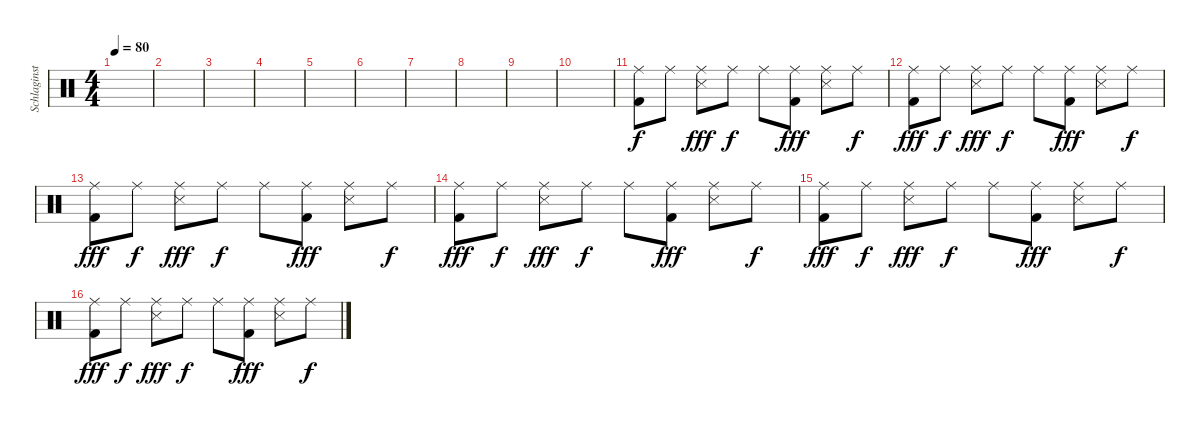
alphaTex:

\track ("Schlaginstrumente - Auswahl" "Schlaginst") {instrument percussion}
\staff {score}
\articulation defaults
\ts (4 4)
\tempo 80
\clef neutral
\ks c
|
|
|
|
|
|
|
|
|
|
("Ride (middle)" "Kick (hit) 2").8 "Ride (middle)".8{dy f} ("Ride (middle)" "Snare (side stick) 3").8{dy fff} "Ride (middle)".8{dy f} "Ride (middle)".8 ("Ride (middle)" "Kick (hit) 2").8{dy fff} ("Ride (middle)" "Snare (side stick) 3").8 "Ride (middle)".8{dy f} |
("Ride (middle)" "Kick (hit) 2").8{dy fff} "Ride (middle)".8{dy f} ("Ride (middle)" "Snare (side stick) 3").8{dy fff} "Ride (middle)".8{dy f} "Ride (middle)".8 ("Ride (middle)" "Kick (hit) 2").8{dy fff} ("Ride (middle)" "Snare (side stick) 3").8 "Ride (middle)".8{dy f} |
("Ride (middle)" "Kick (hit) 2").8{dy fff} "Ride (middle)".8{dy f} ("Ride (middle)" "Snare (side stick) 3").8{dy fff} "Ride (middle)".8{dy f} "Ride (middle)".8 ("Ride (middle)" "Kick (hit) 2").8{dy fff} ("Ride (middle)" "Snare (side stick) 3").8 "Ride (middle)".8{dy f} |
("Ride (middle)" "Kick (hit) 2").8{dy fff} "Ride (middle)".8{dy f} ("Ride (middle)" "Snare (side stick) 3").8{dy fff} "Ride (middle)".8{dy f} "Ride (middle)".8 ("Ride (middle)" "Kick (hit) 2").8{dy fff} ("Ride (middle)" "Snare (side stick) 3").8 "Ride (middle)".8{dy f} |
("Ride (middle)" "Kick (hit) 2").8{dy fff} "Ride (middle)".8{dy f} ("Ride (middle)" "Snare (side stick) 3").8{dy fff} "Ride (middle)".8{dy f} "Ride (middle)".8 ("Ride (middle)" "Kick (hit) 2").8{dy fff} ("Ride (middle)" "Snare (side stick) 3").8 "Ride (middle)".8{dy f} |
("Ride (middle)" "Kick (hit) 2").8{dy fff} "Ride (middle)".8{dy f} ("Ride (middle)" "Snare (side stick) 3").8{dy fff} "Ride (middle)".8{dy f} "Ride (middle)".8 ("Ride (middle)" "Kick (hit) 2").8{dy fff} ("Ride (middle)" "Snare (side stick) 3").8 "Ride (middle)".8{dy f}
